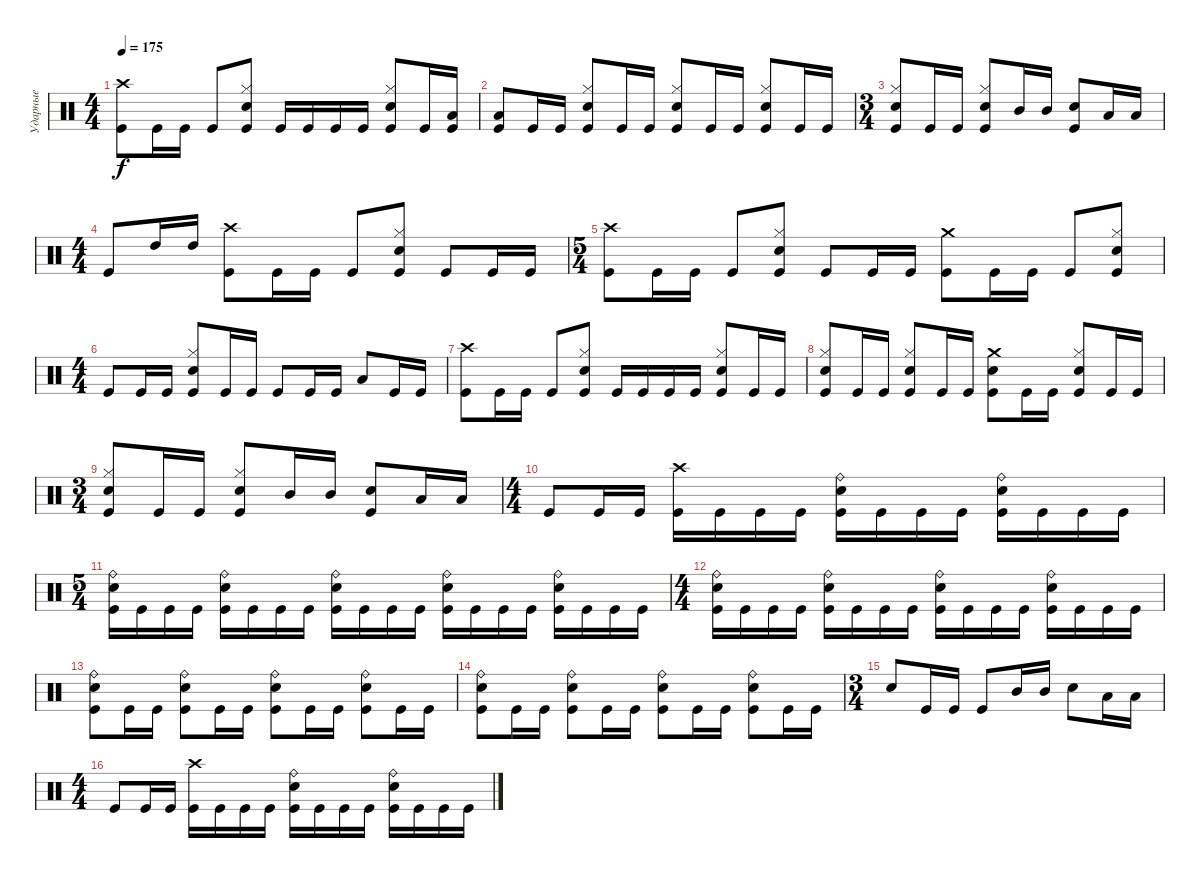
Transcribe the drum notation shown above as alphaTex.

\track ("Ударные" "Ударные") {instrument percussion}
\staff {score}
\articulation defaults
\ts (4 4)
\tempo 175
\clef neutral
\ks c
("Crash high (hit)" "Kick (hit)").8{dy f} "Kick (hit)".16 "Kick (hit)".16 "Kick (hit)".8 ("Hi-Hat (closed)" "Electric Snare (hit)" "Kick (hit)").8 "Kick (hit)".16 "Kick (hit)".16 "Kick (hit)".16 "Kick (hit)".16 ("Hi-Hat (closed)" "Electric Snare (hit)" "Kick (hit)").8 "Kick (hit)".16 ("Low Tom (hit)" "Kick (hit)").16 |
("Low Tom (hit)" "Kick (hit)").8 "Kick (hit)".16 "Kick (hit)".16 ("Hi-Hat (closed)" "Electric Snare (hit)" "Kick (hit)").8 "Kick (hit)".16 "Kick (hit)".16 ("Hi-Hat (closed)" "Electric Snare (hit)" "Kick (hit)").8 "Kick (hit)".16 "Kick (hit)".16 ("Hi-Hat (closed)" "Electric Snare (hit)" "Kick (hit)").8 "Kick (hit)".16 "Kick (hit)".16 |
\ts (3 4)
("Hi-Hat (closed)" "Electric Snare (hit)" "Kick (hit)").8 "Kick (hit)".16 "Kick (hit)".16 ("Hi-Hat (closed)" "Electric Snare (hit)" "Kick (hit)").8 "Mid Tom (hit)".16 "Mid Tom (hit)".16 ("Electric Snare (hit)" "Kick (hit)").8 "Low Tom (hit)".16 "Low Tom (hit)".16 |
\ts (4 4)
"Kick (hit)".8 "High Tom (hit)".16 "High Tom (hit)".16 ("Crash high (hit)" "Kick (hit)").8 "Kick (hit)".16 "Kick (hit)".16 "Kick (hit)".8 ("Hi-Hat (closed)" "Electric Snare (hit)" "Kick (hit)").8 "Kick (hit)".8 "Kick (hit)".16 "Kick (hit)".16 |
\ts (5 4)
("Crash high (hit)" "Kick (hit)").8 "Kick (hit)".16 "Kick (hit)".16 "Kick (hit)".8 ("Hi-Hat (closed)" "Electric Snare (hit)" "Kick (hit)").8 "Kick (hit)".8 "Kick (hit)".16 "Kick (hit)".16 ("Crash medium (hit)" "Kick (hit)").8 "Kick (hit)".16 "Kick (hit)".16 "Kick (hit)".8 ("Hi-Hat (closed)" "Electric Snare (hit)" "Kick (hit)").8 |
\ts (4 4)
"Kick (hit)".8 "Kick (hit)".16 "Kick (hit)".16 ("Hi-Hat (closed)" "Electric Snare (hit)" "Kick (hit)").8 "Kick (hit)".16 "Kick (hit)".16 "Kick (hit)".8 "Kick (hit)".16 "Kick (hit)".16 "Low Tom (hit)".8 "Kick (hit)".16 "Kick (hit)".16 |
("Crash high (hit)" "Kick (hit)").8 "Kick (hit)".16 "Kick (hit)".16 "Kick (hit)".8 ("Hi-Hat (closed)" "Electric Snare (hit)" "Kick (hit)").8 "Kick (hit)".16 "Kick (hit)".16 "Kick (hit)".16 "Kick (hit)".16 ("Hi-Hat (closed)" "Electric Snare (hit)" "Kick (hit)").8 "Kick (hit)".16 "Kick (hit)".16 |
("Hi-Hat (closed)" "Electric Snare (hit)" "Kick (hit)").8 "Kick (hit)".16 "Kick (hit)".16 ("Hi-Hat (closed)" "Electric Snare (hit)" "Kick (hit)").8 "Kick (hit)".16 "Kick (hit)".16 ("Crash medium (hit)" "Electric Snare (hit)" "Kick (hit)").8 "Kick (hit)".16 "Kick (hit)".16 ("Hi-Hat (closed)" "Electric Snare (hit)" "Kick (hit)").8 "Kick (hit)".16 "Kick (hit)".16 |
\ts (3 4)
("Hi-Hat (closed)" "Electric Snare (hit)" "Kick (hit)").8 "Kick (hit)".16 "Kick (hit)".16 ("Hi-Hat (closed)" "Electric Snare (hit)" "Kick (hit)").8 "Mid Tom (hit)".16 "Mid Tom (hit)".16 ("Electric Snare (hit)" "Kick (hit)").8 "Low Tom (hit)".16 "Low Tom (hit)".16 |
\ts (4 4)
"Kick (hit)".8 "Kick (hit)".16 "Kick (hit)".16 ("Crash high (hit)" "Kick (hit)").16 "Kick (hit)".16 "Kick (hit)".16 "Kick (hit)".16 ("Ride (bell)" "Electric Snare (hit)" "Kick (hit)").16 "Kick (hit)".16 "Kick (hit)".16 "Kick (hit)".16 ("Ride (bell)" "Electric Snare (hit)" "Kick (hit)").16 "Kick (hit)".16 "Kick (hit)".16 "Kick (hit)".16 |
\ts (5 4)
("Ride (bell)" "Electric Snare (hit)" "Kick (hit)").16 "Kick (hit)".16 "Kick (hit)".16 "Kick (hit)".16 ("Ride (bell)" "Electric Snare (hit)" "Kick (hit)").16 "Kick (hit)".16 "Kick (hit)".16 "Kick (hit)".16 ("Ride (bell)" "Electric Snare (hit)" "Kick (hit)").16 "Kick (hit)".16 "Kick (hit)".16 "Kick (hit)".16 ("Ride (bell)" "Electric Snare (hit)" "Kick (hit)").16 "Kick (hit)".16 "Kick (hit)".16 "Kick (hit)".16 ("Ride (bell)" "Electric Snare (hit)" "Kick (hit)").16 "Kick (hit)".16 "Kick (hit)".16 "Kick (hit)".16 |
\ts (4 4)
("Ride (bell)" "Electric Snare (hit)" "Kick (hit)").16 "Kick (hit)".16 "Kick (hit)".16 "Kick (hit)".16 ("Ride (bell)" "Electric Snare (hit)" "Kick (hit)").16 "Kick (hit)".16 "Kick (hit)".16 "Kick (hit)".16 ("Ride (bell)" "Electric Snare (hit)" "Kick (hit)").16 "Kick (hit)".16 "Kick (hit)".16 "Kick (hit)".16 ("Ride (bell)" "Electric Snare (hit)" "Kick (hit)").16 "Kick (hit)".16 "Kick (hit)".16 "Kick (hit)".16 |
("Ride (bell)" "Electric Snare (hit)" "Kick (hit)").8 "Kick (hit)".16 "Kick (hit)".16 ("Ride (bell)" "Electric Snare (hit)" "Kick (hit)").8 "Kick (hit)".16 "Kick (hit)".16 ("Ride (bell)" "Electric Snare (hit)" "Kick (hit)").8 "Kick (hit)".16 "Kick (hit)".16 ("Ride (bell)" "Electric Snare (hit)" "Kick (hit)").8 "Kick (hit)".16 "Kick (hit)".16 |
("Ride (bell)" "Electric Snare (hit)" "Kick (hit)").8 "Kick (hit)".16 "Kick (hit)".16 ("Ride (bell)" "Electric Snare (hit)" "Kick (hit)").8 "Kick (hit)".16 "Kick (hit)".16 ("Ride (bell)" "Electric Snare (hit)" "Kick (hit)").8 "Kick (hit)".16 "Kick (hit)".16 ("Ride (bell)" "Electric Snare (hit)" "Kick (hit)").8 "Kick (hit)".16 "Kick (hit)".16 |
\ts (3 4)
"Electric Snare (hit)".8 "Kick (hit)".16 "Kick (hit)".16 "Kick (hit)".8 "Mid Tom (hit)".16 "Mid Tom (hit)".16 "Electric Snare (hit)".8 "Low Tom (hit)".16 "Low Tom (hit)".16 |
\ts (4 4)
"Kick (hit)".8 "Kick (hit)".16 "Kick (hit)".16 ("Crash high (hit)" "Kick (hit)").16 "Kick (hit)".16 "Kick (hit)".16 "Kick (hit)".16 ("Ride (bell)" "Electric Snare (hit)" "Kick (hit)").16 "Kick (hit)".16 "Kick (hit)".16 "Kick (hit)".16 ("Ride (bell)" "Electric Snare (hit)" "Kick (hit)").16 "Kick (hit)".16 "Kick (hit)".16 "Kick (hit)".16
